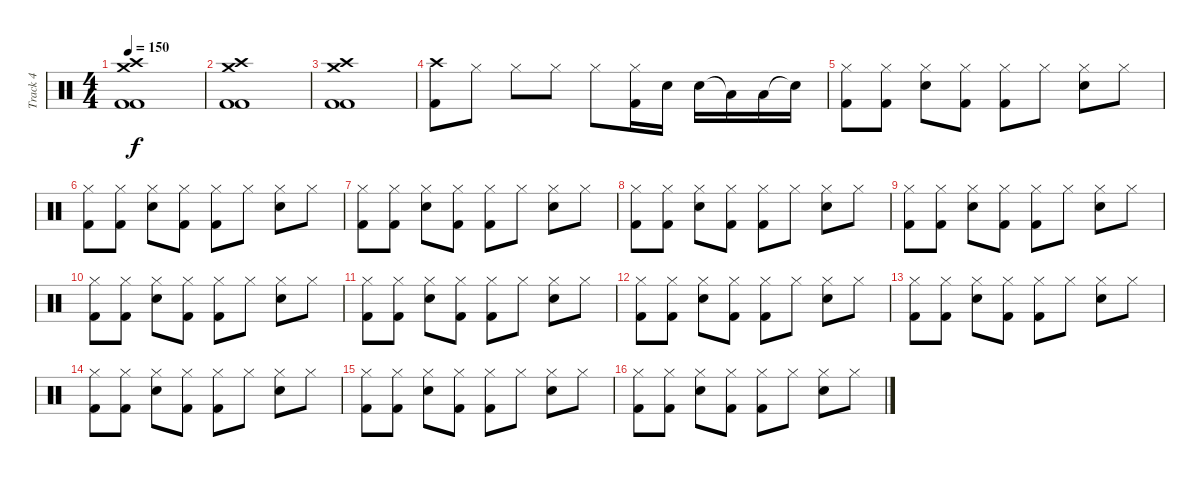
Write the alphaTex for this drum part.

\track ("Track 4" "Track 4") {instrument percussion}
\staff {score}
\articulation defaults
\ts (4 4)
\tempo 150
\clef neutral
\ks c
("Crash high (hit)" "Crash medium (hit)" "Kick (hit) 2" "Kick (hit) 2").1{dy f} |
("Crash high (hit)" "Crash medium (hit)" "Kick (hit) 2" "Kick (hit) 2").1 |
("Crash high (hit)" "Crash medium (hit)" "Kick (hit) 2" "Kick (hit) 2").1 |
("Crash high (hit)" "Kick (hit) 2").8 "Hi-Hat (closed)".8 "Hi-Hat (closed)".8 "Hi-Hat (closed)".8 "Hi-Hat (closed)".8 ("Hi-Hat (closed)" "Kick (hit) 2").16 "Snare (hit) 2".16 "Snare (hit) 2".16 "Low Tom (hit)"{t}.16 "Low Tom (hit)".16 "Snare (hit)"{t}.16 |
("Hi-Hat (closed)" "Kick (hit) 2").8 ("Hi-Hat (closed)" "Kick (hit) 2").8 ("Hi-Hat (closed)" "Snare (hit) 2").8 ("Hi-Hat (closed)" "Kick (hit) 2").8 ("Hi-Hat (closed)" "Kick (hit) 2").8 "Hi-Hat (closed)".8 ("Hi-Hat (closed)" "Snare (hit) 2").8 "Hi-Hat (closed)".8 |
("Hi-Hat (closed)" "Kick (hit) 2").8 ("Hi-Hat (closed)" "Kick (hit) 2").8 ("Hi-Hat (closed)" "Snare (hit) 2").8 ("Hi-Hat (closed)" "Kick (hit) 2").8 ("Hi-Hat (closed)" "Kick (hit) 2").8 "Hi-Hat (closed)".8 ("Hi-Hat (closed)" "Snare (hit) 2").8 "Hi-Hat (closed)".8 |
("Hi-Hat (closed)" "Kick (hit) 2").8 ("Hi-Hat (closed)" "Kick (hit) 2").8 ("Hi-Hat (closed)" "Snare (hit) 2").8 ("Hi-Hat (closed)" "Kick (hit) 2").8 ("Hi-Hat (closed)" "Kick (hit) 2").8 "Hi-Hat (closed)".8 ("Hi-Hat (closed)" "Snare (hit) 2").8 "Hi-Hat (closed)".8 |
("Hi-Hat (closed)" "Kick (hit) 2").8 ("Hi-Hat (closed)" "Kick (hit) 2").8 ("Hi-Hat (closed)" "Snare (hit) 2").8 ("Hi-Hat (closed)" "Kick (hit) 2").8 ("Hi-Hat (closed)" "Kick (hit) 2").8 "Hi-Hat (closed)".8 ("Hi-Hat (closed)" "Snare (hit) 2").8 "Hi-Hat (closed)".8 |
("Hi-Hat (closed)" "Kick (hit) 2").8 ("Hi-Hat (closed)" "Kick (hit) 2").8 ("Hi-Hat (closed)" "Snare (hit) 2").8 ("Hi-Hat (closed)" "Kick (hit) 2").8 ("Hi-Hat (closed)" "Kick (hit) 2").8 "Hi-Hat (closed)".8 ("Hi-Hat (closed)" "Snare (hit) 2").8 "Hi-Hat (closed)".8 |
("Hi-Hat (closed)" "Kick (hit) 2").8 ("Hi-Hat (closed)" "Kick (hit) 2").8 ("Hi-Hat (closed)" "Snare (hit) 2").8 ("Hi-Hat (closed)" "Kick (hit) 2").8 ("Hi-Hat (closed)" "Kick (hit) 2").8 "Hi-Hat (closed)".8 ("Hi-Hat (closed)" "Snare (hit) 2").8 "Hi-Hat (closed)".8 |
("Hi-Hat (closed)" "Kick (hit) 2").8 ("Hi-Hat (closed)" "Kick (hit) 2").8 ("Hi-Hat (closed)" "Snare (hit) 2").8 ("Hi-Hat (closed)" "Kick (hit) 2").8 ("Hi-Hat (closed)" "Kick (hit) 2").8 "Hi-Hat (closed)".8 ("Hi-Hat (closed)" "Snare (hit) 2").8 "Hi-Hat (closed)".8 |
("Hi-Hat (closed)" "Kick (hit) 2").8 ("Hi-Hat (closed)" "Kick (hit) 2").8 ("Hi-Hat (closed)" "Snare (hit) 2").8 ("Hi-Hat (closed)" "Kick (hit) 2").8 ("Hi-Hat (closed)" "Kick (hit) 2").8 "Hi-Hat (closed)".8 ("Hi-Hat (closed)" "Snare (hit) 2").8 "Hi-Hat (closed)".8 |
("Hi-Hat (closed)" "Kick (hit) 2").8 ("Hi-Hat (closed)" "Kick (hit) 2").8 ("Hi-Hat (closed)" "Snare (hit) 2").8 ("Hi-Hat (closed)" "Kick (hit) 2").8 ("Hi-Hat (closed)" "Kick (hit) 2").8 "Hi-Hat (closed)".8 ("Hi-Hat (closed)" "Snare (hit) 2").8 "Hi-Hat (closed)".8 |
("Hi-Hat (closed)" "Kick (hit) 2").8 ("Hi-Hat (closed)" "Kick (hit) 2").8 ("Hi-Hat (closed)" "Snare (hit) 2").8 ("Hi-Hat (closed)" "Kick (hit) 2").8 ("Hi-Hat (closed)" "Kick (hit) 2").8 "Hi-Hat (closed)".8 ("Hi-Hat (closed)" "Snare (hit) 2").8 "Hi-Hat (closed)".8 |
("Hi-Hat (closed)" "Kick (hit) 2").8 ("Hi-Hat (closed)" "Kick (hit) 2").8 ("Hi-Hat (closed)" "Snare (hit) 2").8 ("Hi-Hat (closed)" "Kick (hit) 2").8 ("Hi-Hat (closed)" "Kick (hit) 2").8 "Hi-Hat (closed)".8 ("Hi-Hat (closed)" "Snare (hit) 2").8 "Hi-Hat (closed)".8 |
("Hi-Hat (closed)" "Kick (hit) 2").8 ("Hi-Hat (closed)" "Kick (hit) 2").8 ("Hi-Hat (closed)" "Snare (hit) 2").8 ("Hi-Hat (closed)" "Kick (hit) 2").8 ("Hi-Hat (closed)" "Kick (hit) 2").8 "Hi-Hat (closed)".8 ("Hi-Hat (closed)" "Snare (hit) 2").8 "Hi-Hat (closed)".8
